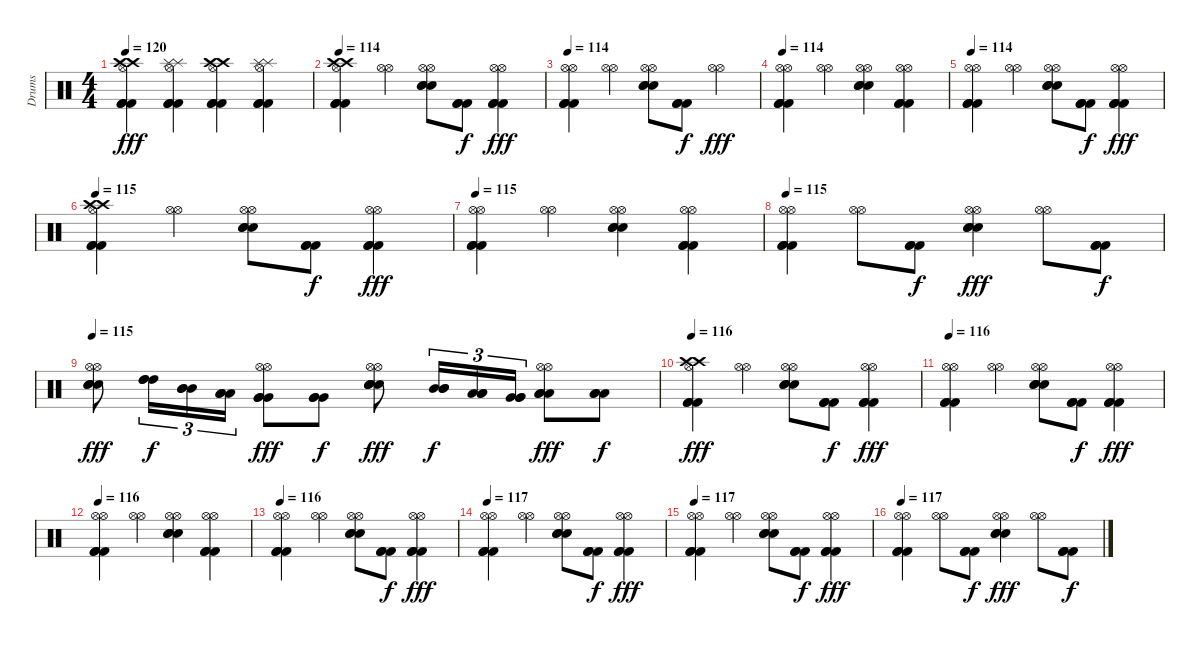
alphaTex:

\track ("Drums" "Drums") {instrument percussion}
\staff {score}
\articulation defaults
\ts (4 4)
\tempo 120
\clef neutral
\ks c
("Hi-Hat (open)" "Crash high (hit)" "Crash high (hit)" "Kick (hit) 2" "Kick (hit) 2" "Kick (hit) 2").4{dy fff} ("Hi-Hat (open)" "Splash (hit)" "Splash (hit)" "Kick (hit) 2" "Kick (hit) 2" "Kick (hit) 2").4 ("Hi-Hat (open)" "Crash high (hit)" "Crash high (hit)" "Kick (hit) 2" "Kick (hit) 2" "Kick (hit) 2").4 ("Hi-Hat (open)" "Splash (hit)" "Splash (hit)" "Kick (hit) 2" "Kick (hit) 2" "Kick (hit) 2").4 |
\tempo 114
("Hi-Hat (open)" "Crash high (hit)" "Crash high (hit)" "Kick (hit) 2" "Kick (hit) 2" "Kick (hit) 2").4 ("Hi-Hat (open)" "Hi-Hat (open)").4 ("Hi-Hat (open)" "Hi-Hat (open)" "Snare (hit) 2" "Snare (hit) 2" "Snare (hit) 2").8 ("Kick (hit) 2" "Kick (hit) 2" "Kick (hit) 2").8{dy f} ("Hi-Hat (open)" "Hi-Hat (open)" "Kick (hit) 2" "Kick (hit) 2" "Kick (hit) 2").4{dy fff} |
\tempo 114
("Hi-Hat (open)" "Hi-Hat (open)" "Kick (hit) 2" "Kick (hit) 2" "Kick (hit) 2").4 ("Hi-Hat (open)" "Hi-Hat (open)").4 ("Hi-Hat (open)" "Hi-Hat (open)" "Snare (hit) 2" "Snare (hit) 2" "Snare (hit) 2").8 ("Kick (hit) 2" "Kick (hit) 2" "Kick (hit) 2").8{dy f} ("Hi-Hat (open)" "Hi-Hat (open)").4{dy fff} |
\tempo 114
("Hi-Hat (open)" "Hi-Hat (open)" "Kick (hit) 2" "Kick (hit) 2" "Kick (hit) 2").4 ("Hi-Hat (open)" "Hi-Hat (open)").4 ("Hi-Hat (open)" "Hi-Hat (open)" "Snare (hit) 2" "Snare (hit) 2" "Snare (hit) 2").4 ("Hi-Hat (open)" "Hi-Hat (open)" "Kick (hit) 2" "Kick (hit) 2" "Kick (hit) 2").4 |
\tempo 114
("Hi-Hat (open)" "Hi-Hat (open)" "Kick (hit) 2" "Kick (hit) 2" "Kick (hit) 2").4 ("Hi-Hat (open)" "Hi-Hat (open)").4 ("Hi-Hat (open)" "Hi-Hat (open)" "Snare (hit) 2" "Snare (hit) 2" "Snare (hit) 2").8 ("Kick (hit) 2" "Kick (hit) 2" "Kick (hit) 2").8{dy f} ("Hi-Hat (open)" "Hi-Hat (open)" "Kick (hit) 2" "Kick (hit) 2" "Kick (hit) 2").4{dy fff} |
\tempo 115
("Hi-Hat (open)" "Crash high (hit)" "Crash high (hit)" "Kick (hit) 2" "Kick (hit) 2" "Kick (hit) 2").4 ("Hi-Hat (open)" "Hi-Hat (open)").4 ("Hi-Hat (open)" "Hi-Hat (open)" "Snare (hit) 2" "Snare (hit) 2" "Snare (hit) 2").8 ("Kick (hit) 2" "Kick (hit) 2" "Kick (hit) 2").8{dy f} ("Hi-Hat (open)" "Hi-Hat (open)" "Kick (hit) 2" "Kick (hit) 2" "Kick (hit) 2").4{dy fff} |
\tempo 115
("Hi-Hat (open)" "Hi-Hat (open)" "Kick (hit) 2" "Kick (hit) 2" "Kick (hit) 2").4 ("Hi-Hat (open)" "Hi-Hat (open)").4 ("Hi-Hat (open)" "Hi-Hat (open)" "Snare (hit) 2" "Snare (hit) 2" "Snare (hit) 2").4 ("Hi-Hat (open)" "Hi-Hat (open)" "Kick (hit) 2" "Kick (hit) 2" "Kick (hit) 2").4 |
\tempo 115
("Hi-Hat (open)" "Hi-Hat (open)" "Kick (hit) 2" "Kick (hit) 2" "Kick (hit) 2").4 ("Hi-Hat (open)" "Hi-Hat (open)").8 ("Kick (hit) 2" "Kick (hit) 2" "Kick (hit) 2").8{dy f} ("Hi-Hat (open)" "Hi-Hat (open)" "Snare (hit) 2" "Snare (hit) 2" "Snare (hit) 2").4{dy fff} ("Hi-Hat (open)" "Hi-Hat (open)").8 ("Kick (hit) 2" "Kick (hit) 2" "Kick (hit) 2").8{dy f} |
\tempo 115
("Hi-Hat (open)" "Hi-Hat (open)" "Snare (hit) 2" "Snare (hit) 2" "Snare (hit) 2").8{dy fff} ("High Tom (hit)" "High Tom (hit)" "High Tom (hit)").16{tu (3 2) dy f} ("Mid Tom (hit)" "Mid Tom (hit)" "Mid Tom (hit)").16{tu (3 2)} ("Low Tom (hit)" "Low Tom (hit)" "Low Tom (hit)").16{tu (3 2)} ("Hi-Hat (open)" "Hi-Hat (open)" "Very Low Tom (hit)" "Very Low Tom (hit)" "Very Low Tom (hit)").8{dy fff} ("Very Low Tom (hit)" "Very Low Tom (hit)" "Very Low Tom (hit)").8{dy f} ("Hi-Hat (open)" "Hi-Hat (open)" "Snare (hit) 2" "Snare (hit) 2" "Snare (hit) 2" "Snare (hit) 2").8{dy fff} ("Mid Tom (hit)" "Mid Tom (hit)" "Mid Tom (hit)").16{tu (3 2) dy f} ("Low Tom (hit)" "Low Tom (hit)" "Low Tom (hit)").16{tu (3 2)} ("Very Low Tom (hit)" "Very Low Tom (hit)" "Very Low Tom (hit)").16{tu (3 2)} ("Hi-Hat (open)" "Hi-Hat (open)" "Low Floor Tom (hit)" "Low Floor Tom (hit)" "Low Floor Tom (hit)").8{dy fff} ("Low Floor Tom (hit)" "Low Floor Tom (hit)" "Low Floor Tom (hit)").8{dy f} |
\tempo 116
("Hi-Hat (open)" "Crash high (hit)" "Crash high (hit)" "Kick (hit) 2" "Kick (hit) 2" "Kick (hit) 2").4{dy fff} ("Hi-Hat (open)" "Hi-Hat (open)").4 ("Hi-Hat (open)" "Hi-Hat (open)" "Snare (hit) 2" "Snare (hit) 2" "Snare (hit) 2").8 ("Kick (hit) 2" "Kick (hit) 2" "Kick (hit) 2").8{dy f} ("Hi-Hat (open)" "Hi-Hat (open)" "Kick (hit) 2" "Kick (hit) 2" "Kick (hit) 2").4{dy fff} |
\tempo 116
("Hi-Hat (open)" "Hi-Hat (open)" "Kick (hit) 2" "Kick (hit) 2" "Kick (hit) 2").4 ("Hi-Hat (open)" "Hi-Hat (open)").4 ("Hi-Hat (open)" "Hi-Hat (open)" "Snare (hit) 2" "Snare (hit) 2" "Snare (hit) 2").8 ("Kick (hit) 2" "Kick (hit) 2" "Kick (hit) 2").8{dy f} ("Hi-Hat (open)" "Hi-Hat (open)" "Kick (hit) 2" "Kick (hit) 2" "Kick (hit) 2").4{dy fff} |
\tempo 116
("Hi-Hat (open)" "Hi-Hat (open)" "Kick (hit) 2" "Kick (hit) 2" "Kick (hit) 2").4 ("Hi-Hat (open)" "Hi-Hat (open)").4 ("Hi-Hat (open)" "Hi-Hat (open)" "Snare (hit) 2" "Snare (hit) 2" "Snare (hit) 2").4 ("Hi-Hat (open)" "Hi-Hat (open)" "Kick (hit) 2" "Kick (hit) 2" "Kick (hit) 2").4 |
\tempo 116
("Hi-Hat (open)" "Hi-Hat (open)" "Kick (hit) 2" "Kick (hit) 2" "Kick (hit) 2").4 ("Hi-Hat (open)" "Hi-Hat (open)").4 ("Hi-Hat (open)" "Hi-Hat (open)" "Snare (hit) 2" "Snare (hit) 2" "Snare (hit) 2").8 ("Kick (hit) 2" "Kick (hit) 2" "Kick (hit) 2").8{dy f} ("Hi-Hat (open)" "Hi-Hat (open)" "Kick (hit) 2" "Kick (hit) 2" "Kick (hit) 2").4{dy fff} |
\tempo 117
("Hi-Hat (open)" "Hi-Hat (open)" "Kick (hit) 2" "Kick (hit) 2" "Kick (hit) 2").4 ("Hi-Hat (open)" "Hi-Hat (open)").4 ("Hi-Hat (open)" "Hi-Hat (open)" "Snare (hit) 2" "Snare (hit) 2" "Snare (hit) 2").8 ("Kick (hit) 2" "Kick (hit) 2" "Kick (hit) 2").8{dy f} ("Hi-Hat (open)" "Hi-Hat (open)" "Kick (hit) 2" "Kick (hit) 2" "Kick (hit) 2").4{dy fff} |
\tempo 117
("Hi-Hat (open)" "Hi-Hat (open)" "Kick (hit) 2" "Kick (hit) 2" "Kick (hit) 2").4 ("Hi-Hat (open)" "Hi-Hat (open)").4 ("Hi-Hat (open)" "Hi-Hat (open)" "Snare (hit) 2" "Snare (hit) 2" "Snare (hit) 2").8 ("Kick (hit) 2" "Kick (hit) 2" "Kick (hit) 2").8{dy f} ("Hi-Hat (open)" "Hi-Hat (open)" "Kick (hit) 2" "Kick (hit) 2" "Kick (hit) 2").4{dy fff} |
\tempo 117
("Hi-Hat (open)" "Hi-Hat (open)" "Kick (hit) 2" "Kick (hit) 2" "Kick (hit) 2").4 ("Hi-Hat (open)" "Hi-Hat (open)").8 ("Kick (hit) 2" "Kick (hit) 2" "Kick (hit) 2").8{dy f} ("Hi-Hat (open)" "Hi-Hat (open)" "Snare (hit) 2" "Snare (hit) 2" "Snare (hit) 2").4{dy fff} ("Hi-Hat (open)" "Hi-Hat (open)").8 ("Kick (hit) 2" "Kick (hit) 2" "Kick (hit) 2").8{dy f}
